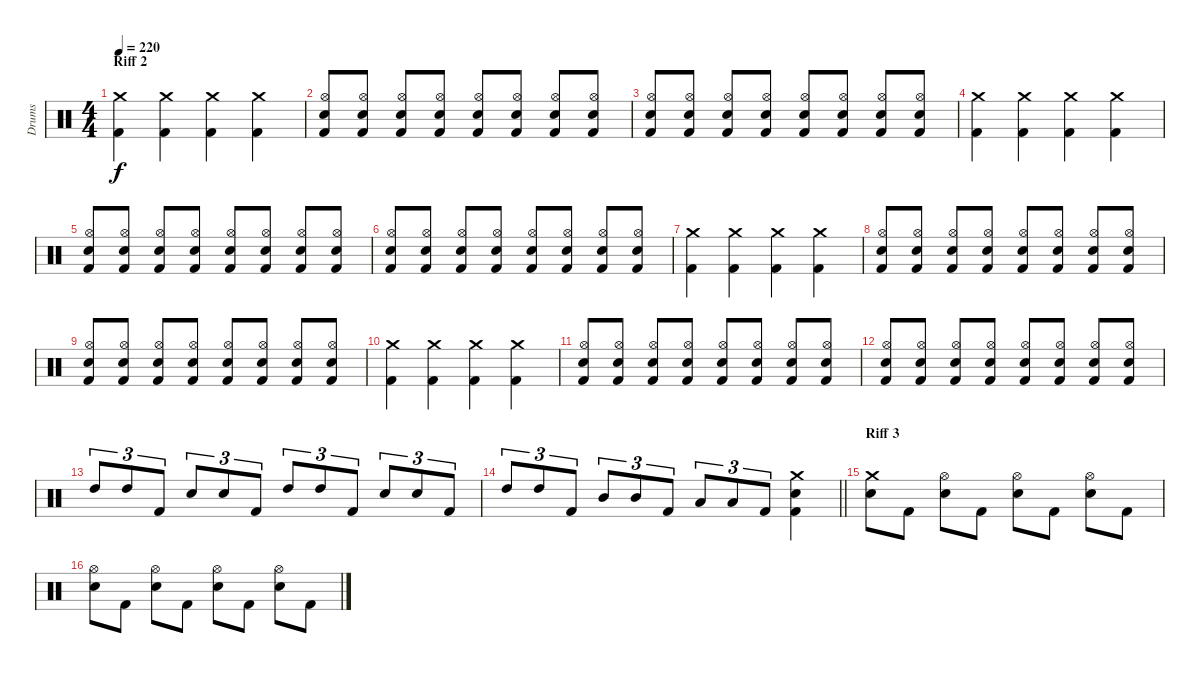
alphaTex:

\track ("Drums" "Drums") {instrument percussion}
\staff {score}
\articulation defaults
\ts (4 4)
\section ("" "Riff 2")
\tempo 220
\clef neutral
\ks c
("Crash medium (hit)" "Kick (hit) 2").4{dy f} ("Crash medium (hit)" "Kick (hit) 2").4 ("Crash medium (hit)" "Kick (hit) 2").4 ("Crash medium (hit)" "Kick (hit) 2").4 |
("Hi-Hat (open)" "Electric Snare (hit)" "Kick (hit) 2").8 ("Hi-Hat (open)" "Electric Snare (hit)" "Kick (hit) 2").8 ("Hi-Hat (open)" "Electric Snare (hit)" "Kick (hit) 2").8 ("Hi-Hat (open)" "Electric Snare (hit)" "Kick (hit) 2").8 ("Hi-Hat (open)" "Electric Snare (hit)" "Kick (hit) 2").8 ("Hi-Hat (open)" "Electric Snare (hit)" "Kick (hit) 2").8 ("Hi-Hat (open)" "Electric Snare (hit)" "Kick (hit) 2").8 ("Hi-Hat (open)" "Electric Snare (hit)" "Kick (hit) 2").8 |
("Hi-Hat (open)" "Electric Snare (hit)" "Kick (hit) 2").8 ("Hi-Hat (open)" "Electric Snare (hit)" "Kick (hit) 2").8 ("Hi-Hat (open)" "Electric Snare (hit)" "Kick (hit) 2").8 ("Hi-Hat (open)" "Electric Snare (hit)" "Kick (hit) 2").8 ("Hi-Hat (open)" "Electric Snare (hit)" "Kick (hit) 2").8 ("Hi-Hat (open)" "Electric Snare (hit)" "Kick (hit) 2").8 ("Hi-Hat (open)" "Electric Snare (hit)" "Kick (hit) 2").8 ("Hi-Hat (open)" "Electric Snare (hit)" "Kick (hit) 2").8 |
("Crash medium (hit)" "Kick (hit) 2").4 ("Crash medium (hit)" "Kick (hit) 2").4 ("Crash medium (hit)" "Kick (hit) 2").4 ("Crash medium (hit)" "Kick (hit) 2").4 |
("Hi-Hat (open)" "Electric Snare (hit)" "Kick (hit) 2").8 ("Hi-Hat (open)" "Electric Snare (hit)" "Kick (hit) 2").8 ("Hi-Hat (open)" "Electric Snare (hit)" "Kick (hit) 2").8 ("Hi-Hat (open)" "Electric Snare (hit)" "Kick (hit) 2").8 ("Hi-Hat (open)" "Electric Snare (hit)" "Kick (hit) 2").8 ("Hi-Hat (open)" "Electric Snare (hit)" "Kick (hit) 2").8 ("Hi-Hat (open)" "Electric Snare (hit)" "Kick (hit) 2").8 ("Hi-Hat (open)" "Electric Snare (hit)" "Kick (hit) 2").8 |
("Hi-Hat (open)" "Electric Snare (hit)" "Kick (hit) 2").8 ("Hi-Hat (open)" "Electric Snare (hit)" "Kick (hit) 2").8 ("Hi-Hat (open)" "Electric Snare (hit)" "Kick (hit) 2").8 ("Hi-Hat (open)" "Electric Snare (hit)" "Kick (hit) 2").8 ("Hi-Hat (open)" "Electric Snare (hit)" "Kick (hit) 2").8 ("Hi-Hat (open)" "Electric Snare (hit)" "Kick (hit) 2").8 ("Hi-Hat (open)" "Electric Snare (hit)" "Kick (hit) 2").8 ("Hi-Hat (open)" "Electric Snare (hit)" "Kick (hit) 2").8 |
("Crash medium (hit)" "Kick (hit) 2").4 ("Crash medium (hit)" "Kick (hit) 2").4 ("Crash medium (hit)" "Kick (hit) 2").4 ("Crash medium (hit)" "Kick (hit) 2").4 |
("Hi-Hat (open)" "Electric Snare (hit)" "Kick (hit) 2").8 ("Hi-Hat (open)" "Electric Snare (hit)" "Kick (hit) 2").8 ("Hi-Hat (open)" "Electric Snare (hit)" "Kick (hit) 2").8 ("Hi-Hat (open)" "Electric Snare (hit)" "Kick (hit) 2").8 ("Hi-Hat (open)" "Electric Snare (hit)" "Kick (hit) 2").8 ("Hi-Hat (open)" "Electric Snare (hit)" "Kick (hit) 2").8 ("Hi-Hat (open)" "Electric Snare (hit)" "Kick (hit) 2").8 ("Hi-Hat (open)" "Electric Snare (hit)" "Kick (hit) 2").8 |
("Hi-Hat (open)" "Electric Snare (hit)" "Kick (hit) 2").8 ("Hi-Hat (open)" "Electric Snare (hit)" "Kick (hit) 2").8 ("Hi-Hat (open)" "Electric Snare (hit)" "Kick (hit) 2").8 ("Hi-Hat (open)" "Electric Snare (hit)" "Kick (hit) 2").8 ("Hi-Hat (open)" "Electric Snare (hit)" "Kick (hit) 2").8 ("Hi-Hat (open)" "Electric Snare (hit)" "Kick (hit) 2").8 ("Hi-Hat (open)" "Electric Snare (hit)" "Kick (hit) 2").8 ("Hi-Hat (open)" "Electric Snare (hit)" "Kick (hit) 2").8 |
("Crash medium (hit)" "Kick (hit) 2").4 ("Crash medium (hit)" "Kick (hit) 2").4 ("Crash medium (hit)" "Kick (hit) 2").4 ("Crash medium (hit)" "Kick (hit) 2").4 |
("Hi-Hat (open)" "Electric Snare (hit)" "Kick (hit) 2").8 ("Hi-Hat (open)" "Electric Snare (hit)" "Kick (hit) 2").8 ("Hi-Hat (open)" "Electric Snare (hit)" "Kick (hit) 2").8 ("Hi-Hat (open)" "Electric Snare (hit)" "Kick (hit) 2").8 ("Hi-Hat (open)" "Electric Snare (hit)" "Kick (hit) 2").8 ("Hi-Hat (open)" "Electric Snare (hit)" "Kick (hit) 2").8 ("Hi-Hat (open)" "Electric Snare (hit)" "Kick (hit) 2").8 ("Hi-Hat (open)" "Electric Snare (hit)" "Kick (hit) 2").8 |
("Hi-Hat (open)" "Electric Snare (hit)" "Kick (hit) 2").8 ("Hi-Hat (open)" "Electric Snare (hit)" "Kick (hit) 2").8 ("Hi-Hat (open)" "Electric Snare (hit)" "Kick (hit) 2").8 ("Hi-Hat (open)" "Electric Snare (hit)" "Kick (hit) 2").8 ("Hi-Hat (open)" "Electric Snare (hit)" "Kick (hit) 2").8 ("Hi-Hat (open)" "Electric Snare (hit)" "Kick (hit) 2").8 ("Hi-Hat (open)" "Electric Snare (hit)" "Kick (hit) 2").8 ("Hi-Hat (open)" "Electric Snare (hit)" "Kick (hit) 2").8 |
"High Tom (hit)".8{tu (3 2)} "High Tom (hit)".8{tu (3 2)} "Kick (hit) 2".8{tu (3 2)} "Electric Snare (hit)".8{tu (3 2)} "Electric Snare (hit)".8{tu (3 2)} "Kick (hit) 2".8{tu (3 2)} "High Tom (hit)".8{tu (3 2)} "High Tom (hit)".8{tu (3 2)} "Kick (hit) 2".8{tu (3 2)} "Electric Snare (hit)".8{tu (3 2)} "Electric Snare (hit)".8{tu (3 2)} "Kick (hit) 2".8{tu (3 2)} |
\barLineRight lightlight "High Tom (hit)".8{tu (3 2)} "High Tom (hit)".8{tu (3 2)} "Kick (hit) 2".8{tu (3 2)} "Mid Tom (hit)".8{tu (3 2)} "Mid Tom (hit)".8{tu (3 2)} "Kick (hit) 2".8{tu (3 2)} "Low Tom (hit)".8{tu (3 2)} "Low Tom (hit)".8{tu (3 2)} "Kick (hit) 2".8{tu (3 2)}
("Crash medium (hit)" "Electric Snare (hit)" "Kick (hit) 2").4 |
\section ("" "Riff 3")
("Crash medium (hit)" "Electric Snare (hit)").8 "Kick (hit) 2".8 ("Hi-Hat (open)" "Electric Snare (hit)").8 "Kick (hit) 2".8 ("Hi-Hat (open)" "Electric Snare (hit)").8 "Kick (hit) 2".8 ("Hi-Hat (open)" "Electric Snare (hit)").8 "Kick (hit) 2".8 |
("Hi-Hat (open)" "Electric Snare (hit)").8 "Kick (hit) 2".8 ("Hi-Hat (open)" "Electric Snare (hit)").8 "Kick (hit) 2".8 ("Hi-Hat (open)" "Electric Snare (hit)").8 "Kick (hit) 2".8 ("Hi-Hat (open)" "Electric Snare (hit)").8 "Kick (hit) 2".8
